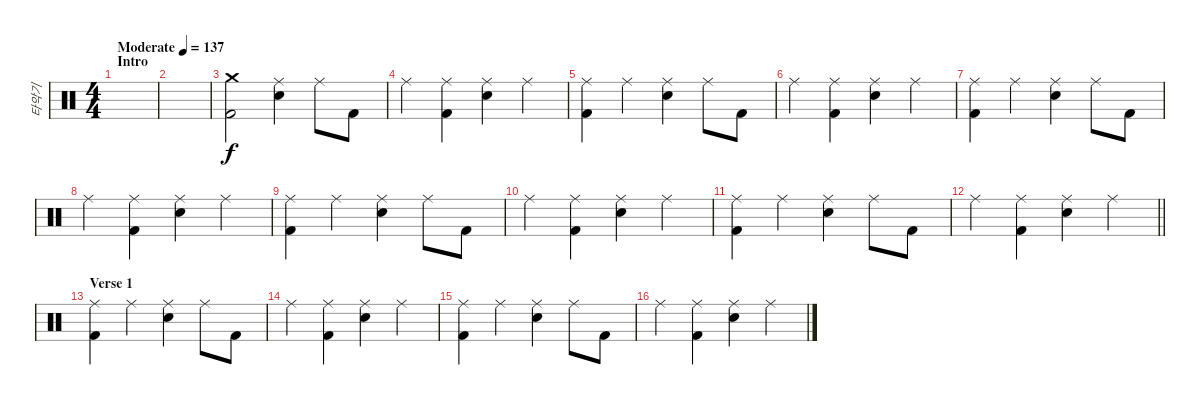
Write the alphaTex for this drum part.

\track ("타악기" "타악기") {instrument percussion}
\staff {score}
\articulation defaults
\ts (4 4)
\section ("" "Intro")
\tempo (137 "Moderate")
\clef neutral
\ks c
|
|
("Crash medium (hit)" "Kick (hit) 2").2 ("Ride (middle)" "Electric Snare (hit)").4 "Ride (middle)".8 "Kick (hit) 2".8 |
"Ride (middle)".4 ("Ride (middle)" "Kick (hit) 2").4 ("Ride (middle)" "Electric Snare (hit)").4 "Ride (middle)".4 |
("Ride (middle)" "Kick (hit) 2").4 "Ride (middle)".4 ("Ride (middle)" "Electric Snare (hit)").4 "Ride (middle)".8 "Kick (hit) 2".8 |
"Ride (middle)".4 ("Ride (middle)" "Kick (hit) 2").4 ("Ride (middle)" "Electric Snare (hit)").4 "Ride (middle)".4 |
("Ride (middle)" "Kick (hit) 2").4 "Ride (middle)".4 ("Ride (middle)" "Electric Snare (hit)").4 "Ride (middle)".8 "Kick (hit) 2".8 |
"Ride (middle)".4 ("Ride (middle)" "Kick (hit) 2").4 ("Ride (middle)" "Electric Snare (hit)").4 "Ride (middle)".4 |
("Ride (middle)" "Kick (hit) 2").4 "Ride (middle)".4 ("Ride (middle)" "Electric Snare (hit)").4 "Ride (middle)".8 "Kick (hit) 2".8 |
"Ride (middle)".4 ("Ride (middle)" "Kick (hit) 2").4 ("Ride (middle)" "Electric Snare (hit)").4 "Ride (middle)".4 |
("Ride (middle)" "Kick (hit) 2").4 "Ride (middle)".4 ("Ride (middle)" "Electric Snare (hit)").4 "Ride (middle)".8 "Kick (hit) 2".8 |
\barLineRight lightlight "Ride (middle)".4
("Ride (middle)" "Kick (hit) 2").4 ("Ride (middle)" "Electric Snare (hit)").4 "Ride (middle)".4 |
\section ("" "Verse 1")
("Ride (middle)" "Kick (hit) 2").4 "Ride (middle)".4 ("Ride (middle)" "Electric Snare (hit)").4 "Ride (middle)".8 "Kick (hit) 2".8 |
"Ride (middle)".4 ("Ride (middle)" "Kick (hit) 2").4 ("Ride (middle)" "Electric Snare (hit)").4 "Ride (middle)".4 |
("Ride (middle)" "Kick (hit) 2").4 "Ride (middle)".4 ("Ride (middle)" "Electric Snare (hit)").4 "Ride (middle)".8 "Kick (hit) 2".8 |
"Ride (middle)".4 ("Ride (middle)" "Kick (hit) 2").4 ("Ride (middle)" "Electric Snare (hit)").4 "Ride (middle)".4
